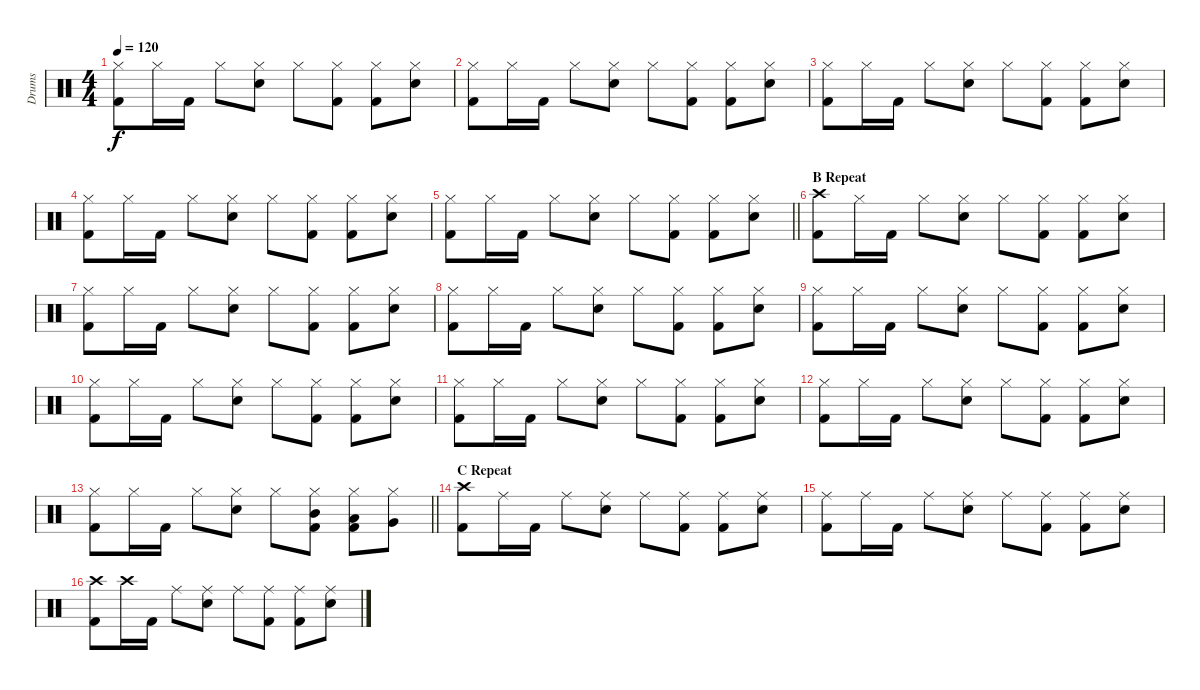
\track ("Drums" "Drums") {instrument percussion}
\staff {score}
\articulation defaults
\ts (4 4)
\tempo 120
\clef neutral
\ks c
("Hi-Hat (closed)" "Kick (hit) 2").8{dy f} "Hi-Hat (closed)".16 "Kick (hit) 2".16 "Hi-Hat (closed)".8 ("Hi-Hat (closed)" "Snare (hit) 2").8 "Hi-Hat (closed)".8 ("Hi-Hat (closed)" "Kick (hit) 2").8 ("Hi-Hat (closed)" "Kick (hit) 2").8 ("Hi-Hat (closed)" "Snare (hit) 2").8 |
("Hi-Hat (closed)" "Kick (hit) 2").8 "Hi-Hat (closed)".16 "Kick (hit) 2".16 "Hi-Hat (closed)".8 ("Hi-Hat (closed)" "Snare (hit) 2").8 "Hi-Hat (closed)".8 ("Hi-Hat (closed)" "Kick (hit) 2").8 ("Hi-Hat (closed)" "Kick (hit) 2").8 ("Hi-Hat (closed)" "Snare (hit) 2").8 |
("Hi-Hat (closed)" "Kick (hit) 2").8 "Hi-Hat (closed)".16 "Kick (hit) 2".16 "Hi-Hat (closed)".8 ("Hi-Hat (closed)" "Snare (hit) 2").8 "Hi-Hat (closed)".8 ("Hi-Hat (closed)" "Kick (hit) 2").8 ("Hi-Hat (closed)" "Kick (hit) 2").8 ("Hi-Hat (closed)" "Snare (hit) 2").8 |
("Hi-Hat (closed)" "Kick (hit) 2").8 "Hi-Hat (closed)".16 "Kick (hit) 2".16 "Hi-Hat (closed)".8 ("Hi-Hat (closed)" "Snare (hit) 2").8 "Hi-Hat (closed)".8 ("Hi-Hat (closed)" "Kick (hit) 2").8 ("Hi-Hat (closed)" "Kick (hit) 2").8 ("Hi-Hat (closed)" "Snare (hit) 2").8 |
\barLineRight lightlight
("Hi-Hat (closed)" "Kick (hit) 2").8 "Hi-Hat (closed)".16 "Kick (hit) 2".16 "Hi-Hat (closed)".8 ("Hi-Hat (closed)" "Snare (hit) 2").8 "Hi-Hat (closed)".8 ("Hi-Hat (closed)" "Kick (hit) 2").8 ("Hi-Hat (closed)" "Kick (hit) 2").8 ("Hi-Hat (closed)" "Snare (hit) 2").8 |
\section ("" "B Repeat")
("Crash high (hit)" "Kick (hit) 2").8 "Hi-Hat (closed)".16 "Kick (hit) 2".16 "Hi-Hat (closed)".8 ("Hi-Hat (closed)" "Snare (hit) 2").8 "Hi-Hat (closed)".8 ("Hi-Hat (closed)" "Kick (hit) 2").8 ("Hi-Hat (closed)" "Kick (hit) 2").8 ("Hi-Hat (closed)" "Snare (hit) 2").8 |
("Hi-Hat (closed)" "Kick (hit) 2").8 "Hi-Hat (closed)".16 "Kick (hit) 2".16 "Hi-Hat (closed)".8 ("Hi-Hat (closed)" "Snare (hit) 2").8 "Hi-Hat (closed)".8 ("Hi-Hat (closed)" "Kick (hit) 2").8 ("Hi-Hat (closed)" "Kick (hit) 2").8 ("Hi-Hat (closed)" "Snare (hit) 2").8 |
("Hi-Hat (closed)" "Kick (hit) 2").8 "Hi-Hat (closed)".16 "Kick (hit) 2".16 "Hi-Hat (closed)".8 ("Hi-Hat (closed)" "Snare (hit) 2").8 "Hi-Hat (closed)".8 ("Hi-Hat (closed)" "Kick (hit) 2").8 ("Hi-Hat (closed)" "Kick (hit) 2").8 ("Hi-Hat (closed)" "Snare (hit) 2").8 |
("Hi-Hat (closed)" "Kick (hit) 2").8 "Hi-Hat (closed)".16 "Kick (hit) 2".16 "Hi-Hat (closed)".8 ("Hi-Hat (closed)" "Snare (hit) 2").8 "Hi-Hat (closed)".8 ("Hi-Hat (closed)" "Kick (hit) 2").8 ("Hi-Hat (closed)" "Kick (hit) 2").8 ("Hi-Hat (closed)" "Snare (hit) 2").8 |
("Hi-Hat (closed)" "Kick (hit) 2").8 "Hi-Hat (closed)".16 "Kick (hit) 2".16 "Hi-Hat (closed)".8 ("Hi-Hat (closed)" "Snare (hit) 2").8 "Hi-Hat (closed)".8 ("Hi-Hat (closed)" "Kick (hit) 2").8 ("Hi-Hat (closed)" "Kick (hit) 2").8 ("Hi-Hat (closed)" "Snare (hit) 2").8 |
("Hi-Hat (closed)" "Kick (hit) 2").8 "Hi-Hat (closed)".16 "Kick (hit) 2".16 "Hi-Hat (closed)".8 ("Hi-Hat (closed)" "Snare (hit) 2").8 "Hi-Hat (closed)".8 ("Hi-Hat (closed)" "Kick (hit) 2").8 ("Hi-Hat (closed)" "Kick (hit) 2").8 ("Hi-Hat (closed)" "Snare (hit) 2").8 |
("Hi-Hat (closed)" "Kick (hit) 2").8 "Hi-Hat (closed)".16 "Kick (hit) 2".16 "Hi-Hat (closed)".8 ("Hi-Hat (closed)" "Snare (hit) 2").8 "Hi-Hat (closed)".8 ("Hi-Hat (closed)" "Kick (hit) 2").8 ("Hi-Hat (closed)" "Kick (hit) 2").8 ("Hi-Hat (closed)" "Snare (hit) 2").8 |
\barLineRight lightlight
("Hi-Hat (closed)" "Kick (hit) 2").8 "Hi-Hat (closed)".16 "Kick (hit) 2".16 "Hi-Hat (closed)".8 ("Hi-Hat (closed)" "Snare (hit) 2").8 "Hi-Hat (closed)".8 ("Hi-Hat (closed)" "Mid Tom (hit)" "Kick (hit) 2").8 ("Hi-Hat (closed)" "Low Tom (hit)" "Kick (hit) 2").8 ("Hi-Hat (closed)" "Very Low Tom (hit)").8 |
\section ("" "C Repeat")
("Crash high (hit)" "Kick (hit) 2").8 "Ride (middle)".16 "Kick (hit) 2".16 "Ride (middle)".8 ("Ride (middle)" "Snare (hit) 2").8 "Ride (middle)".8 ("Ride (middle)" "Kick (hit) 2").8 ("Ride (middle)" "Kick (hit) 2").8 ("Ride (middle)" "Snare (hit) 2").8 |
("Ride (middle)" "Kick (hit) 2").8 "Ride (middle)".16 "Kick (hit) 2".16 "Ride (middle)".8 ("Ride (middle)" "Snare (hit) 2").8 "Ride (middle)".8 ("Ride (middle)" "Kick (hit) 2").8 ("Ride (middle)" "Kick (hit) 2").8 ("Ride (middle)" "Snare (hit) 2").8 |
("Crash high (hit)" "Kick (hit) 2").8 "Crash high (hit)".16 "Kick (hit) 2".16 "Ride (middle)".8 ("Ride (middle)" "Snare (hit) 2").8 "Ride (middle)".8 ("Ride (middle)" "Kick (hit) 2").8 ("Ride (middle)" "Kick (hit) 2").8 ("Ride (middle)" "Snare (hit) 2").8
